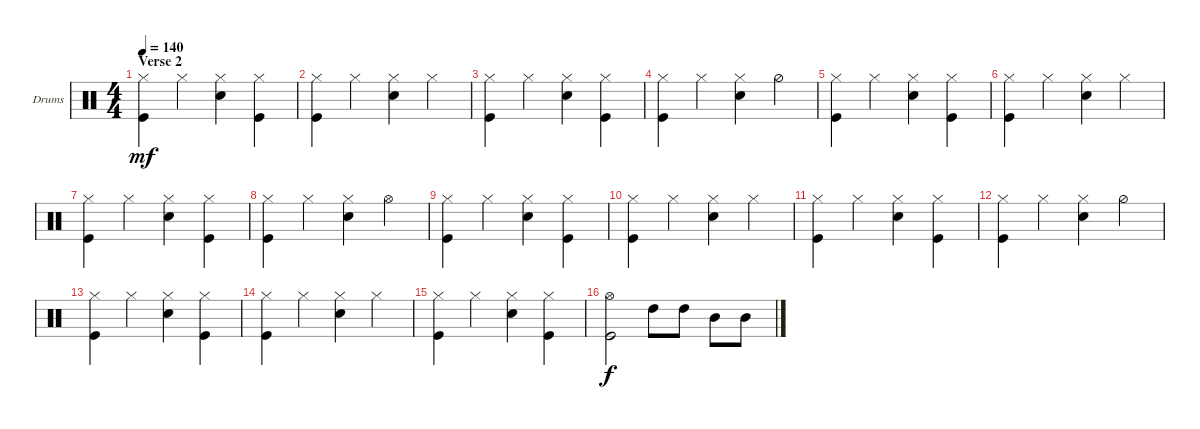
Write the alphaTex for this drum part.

\bracketExtendMode groupsimilarinstruments
\firstSystemTrackNameOrientation horizontal
\otherSystemsTrackNameOrientation horizontal
\track ("Drumkit (Ray Cooper)" "Drums") {instrument percussion}
\staff {score}
\articulation defaults
\ts (4 4)
\section ("" "Verse 2")
\tempo 140
\clef neutral
\scale
1.07945
\ks c
("Kick (hit)" "Hi-Hat (closed)").4{dy mf} "Hi-Hat (closed)".4 ("Hi-Hat (closed)" "Snare (hit) 2").4 ("Hi-Hat (closed)" "Kick (hit)").4 |
\scale
0.973518 ("Hi-Hat (closed)" "Kick (hit)").4 "Hi-Hat (closed)".4 ("Hi-Hat (closed)" "Snare (hit) 2").4 "Hi-Hat (closed)".4 |
\scale
0.973518 ("Kick (hit)" "Hi-Hat (closed)").4 "Hi-Hat (closed)".4 ("Hi-Hat (closed)" "Snare (hit) 2").4 ("Hi-Hat (closed)" "Kick (hit)").4 |
\scale
0.973518 ("Hi-Hat (closed)" "Kick (hit)").4 "Hi-Hat (closed)".4 ("Hi-Hat (closed)" "Snare (hit) 2").4 "Hi-Hat (half)".4 |
\scale
1.07945 ("Kick (hit)" "Hi-Hat (closed)").4 "Hi-Hat (closed)".4 ("Hi-Hat (closed)" "Snare (hit) 2").4 ("Hi-Hat (closed)" "Kick (hit)").4 |
\scale
0.973518 ("Hi-Hat (closed)" "Kick (hit)").4 "Hi-Hat (closed)".4 ("Hi-Hat (closed)" "Snare (hit) 2").4 "Hi-Hat (closed)".4 |
\scale
0.973518 ("Kick (hit)" "Hi-Hat (closed)").4 "Hi-Hat (closed)".4 ("Hi-Hat (closed)" "Snare (hit) 2").4 ("Hi-Hat (closed)" "Kick (hit)").4 |
\scale
0.973518 ("Hi-Hat (closed)" "Kick (hit)").4 "Hi-Hat (closed)".4 ("Hi-Hat (closed)" "Snare (hit) 2").4 "Hi-Hat (open)".4 |
\scale
1.07945 ("Kick (hit)" "Hi-Hat (closed)").4 "Hi-Hat (closed)".4 ("Hi-Hat (closed)" "Snare (hit) 2").4 ("Hi-Hat (closed)" "Kick (hit)").4 |
\scale
0.973518 ("Hi-Hat (closed)" "Kick (hit)").4 "Hi-Hat (closed)".4 ("Hi-Hat (closed)" "Snare (hit) 2").4 "Hi-Hat (closed)".4 |
\scale
0.973518 ("Kick (hit)" "Hi-Hat (closed)").4 "Hi-Hat (closed)".4 ("Hi-Hat (closed)" "Snare (hit) 2").4 ("Hi-Hat (closed)" "Kick (hit)").4 |
\scale
0.973518 ("Hi-Hat (closed)" "Kick (hit)").4 "Hi-Hat (closed)".4 ("Hi-Hat (closed)" "Snare (hit) 2").4 "Hi-Hat (half)".4 |
\scale
1.07945 ("Kick (hit)" "Hi-Hat (closed)").4 "Hi-Hat (closed)".4 ("Hi-Hat (closed)" "Snare (hit) 2").4 ("Hi-Hat (closed)" "Kick (hit)").4 |
\scale
0.973518 ("Hi-Hat (closed)" "Kick (hit)").4 "Hi-Hat (closed)".4 ("Hi-Hat (closed)" "Snare (hit) 2").4 "Hi-Hat (closed)".4 |
\scale
0.973518 ("Kick (hit)" "Hi-Hat (closed)").4 "Hi-Hat (closed)".4 ("Hi-Hat (closed)" "Snare (hit) 2").4 ("Kick (hit)" "Hi-Hat (closed)").4 |
\scale
0.973518 ("Hi-Hat (open)" "Kick (hit)").2{dy f} "High Tom (hit)".8 "High Tom (hit)".8 "Mid Tom (hit)".8 "Mid Tom (hit)".8
